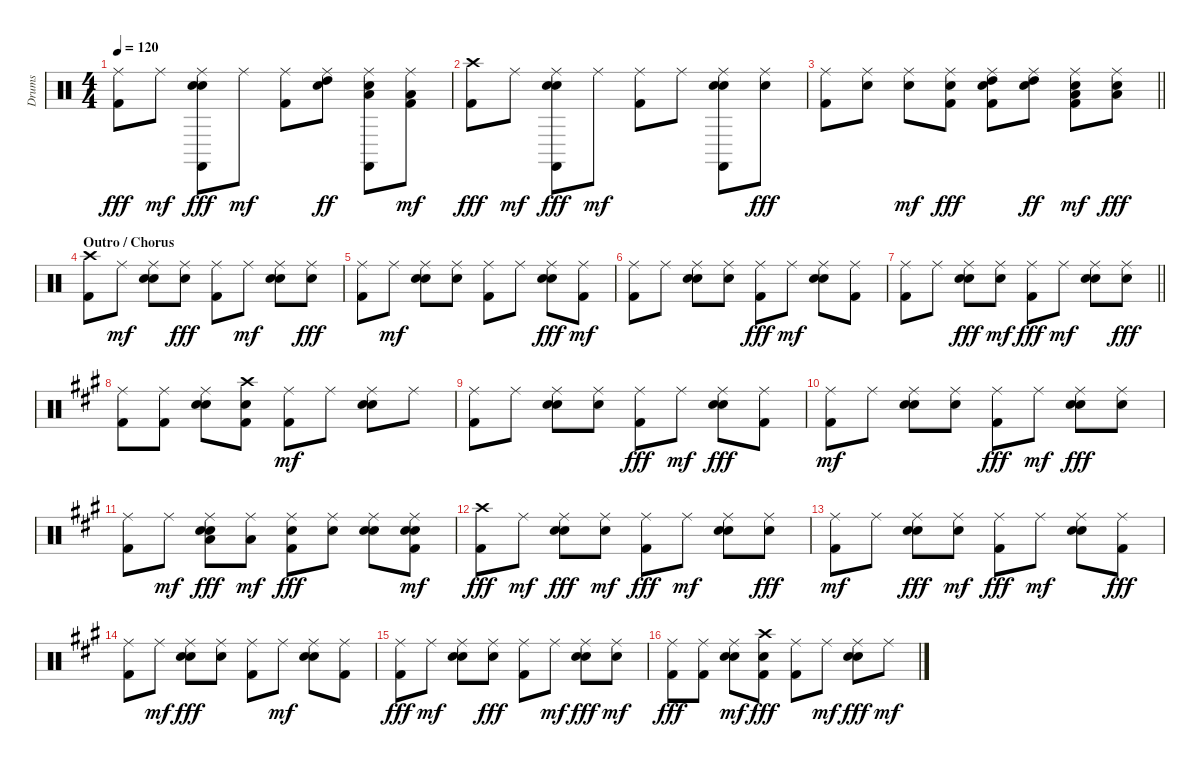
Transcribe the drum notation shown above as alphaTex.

\track ("Drums" "Drums") {instrument percussion}
\staff {score}
\articulation defaults
\ts (4 4)
\tempo 120
\clef neutral
\ks c
("Ride (middle)" "Kick (hit) 2").8{dy fff} "Ride (middle)".8{dy mf} ("Ride (middle)" "Hand Clap (hit)" "Castanets (hit)" "Snare (hit) 2").8{dy fff} "Ride (middle)".8{dy mf} ("Kick (hit) 2" "Ride (middle)").8 ("Snare (hit) 2" "Ride (middle)" "High Tom (hit)").8{dy ff} ("Hand Clap (hit)" "Ride (middle)" "Castanets (hit)" "Low Tom (hit)").8 ("Low Floor Tom (hit)" "Kick (hit) 2" "Ride (middle)").8{dy mf} |
("Crash high (hit)" "Kick (hit) 2").8{dy fff} "Ride (middle)".8{dy mf} ("Hand Clap (hit)" "Ride (middle)" "Castanets (hit)" "Snare (hit) 2").8{dy fff} "Ride (middle)".8{dy mf} ("Kick (hit) 2" "Ride (middle)").8 "Ride (middle)".8 ("Snare (hit) 2" "Castanets (hit)" "Hand Clap (hit)" "Ride (middle)").8 ("Ride (middle)" "Snare (hit) 2").8{dy fff} |
\barLineRight lightlight
("Ride (middle)" "Kick (hit) 2").8 ("Ride (middle)" "Snare (hit) 2").8 ("Snare (hit) 2" "Ride (middle)").8{dy mf} ("Snare (hit) 2" "Ride (middle)" "Kick (hit) 2").8{dy fff} ("High Tom (hit)" "Snare (hit) 2" "Ride (middle)" "Kick (hit) 2").8 ("Ride (middle)" "Snare (hit) 2" "High Tom (hit)").8{dy ff} ("Kick (hit) 2" "Low Tom (hit)" "Snare (hit) 2" "Ride (middle)").8{dy mf} ("Low Floor Tom (hit)" "Ride (middle)" "Snare (hit) 2").8{dy fff} |
\section ("" "Outro / Chorus")
("Crash high (hit)" "Kick (hit) 2").8 "Ride (middle)".8{dy mf} ("Hand Clap (hit)" "Snare (hit) 2" "Ride (middle)").8 ("Ride (middle)" "Hand Clap (hit)").8{dy fff} ("Ride (middle)" "Kick (hit) 2").8 "Ride (middle)".8{dy mf} ("Hand Clap (hit)" "Snare (hit) 2" "Ride (middle)").8 ("Ride (middle)" "Snare (hit) 2").8{dy fff} |
("Ride (middle)" "Kick (hit) 2").8 "Ride (middle)".8{dy mf} ("Hand Clap (hit)" "Snare (hit) 2" "Ride (middle)").8 ("Hand Clap (hit)" "Ride (middle)").8 ("Kick (hit) 2" "Ride (middle)").8 "Ride (middle)".8 ("Snare (hit) 2" "Ride (middle)" "Hand Clap (hit)").8{dy fff} ("Kick (hit) 2" "Ride (middle)").8{dy mf} |
("Kick (hit) 2" "Ride (middle)").8 "Ride (middle)".8 ("Snare (hit) 2" "Hand Clap (hit)" "Ride (middle)").8 ("Hand Clap (hit)" "Ride (middle)").8 ("Ride (middle)" "Kick (hit) 2").8{dy fff} "Ride (middle)".8{dy mf} ("Hand Clap (hit)" "Snare (hit) 2" "Ride (middle)").8 ("Kick (hit) 2" "Ride (middle)").8 |
\barLineRight lightlight
("Kick (hit) 2" "Ride (middle)").8 "Ride (middle)".8 ("Ride (middle)" "Snare (hit) 2" "Hand Clap (hit)").8{dy fff} ("Hand Clap (hit)" "Ride (middle)").8{dy mf} ("Ride (middle)" "Kick (hit) 2").8{dy fff} "Ride (middle)".8{dy mf} ("Hand Clap (hit)" "Snare (hit) 2" "Ride (middle)").8 ("Ride (middle)" "Snare (hit) 2").8{dy fff} |
\ks a
("Ride (middle)" "Kick (hit) 2").8 ("Ride (middle)" "Kick (hit) 2").8 ("Hand Clap (hit)" "Ride (middle)" "Snare (hit) 2").8 ("Kick (hit) 2" "Hand Clap (hit)" "Crash high (hit)").8 ("Kick (hit) 2" "Ride (middle)").8{dy mf} "Ride (middle)".8 ("Hand Clap (hit)" "Snare (hit) 2" "Ride (middle)").8 "Ride (middle)".8 |
("Kick (hit) 2" "Ride (middle)").8 "Ride (middle)".8 ("Hand Clap (hit)" "Snare (hit) 2" "Ride (middle)").8 ("Hand Clap (hit)" "Ride (middle)").8 ("Ride (middle)" "Kick (hit) 2").8{dy fff} "Ride (middle)".8{dy mf} ("Snare (hit) 2" "Ride (middle)" "Hand Clap (hit)").8{dy fff} ("Ride (middle)" "Kick (hit) 2").8 |
("Kick (hit) 2" "Ride (middle)").8{dy mf} "Ride (middle)".8 ("Snare (hit) 2" "Hand Clap (hit)" "Ride (middle)").8 ("Hand Clap (hit)" "Ride (middle)").8 ("Ride (middle)" "Kick (hit) 2").8{dy fff} "Ride (middle)".8{dy mf} ("Ride (middle)" "Hand Clap (hit)" "Snare (hit) 2").8{dy fff} ("Ride (middle)" "Snare (hit) 2").8 |
("Ride (middle)" "Kick (hit) 2").8 "Ride (middle)".8{dy mf} ("Hand Clap (hit)" "Low Tom (hit)" "Ride (middle)" "Snare (hit) 2").8{dy fff} ("Low Floor Tom (hit)" "Ride (middle)").8{dy mf} ("Snare (hit) 2" "Ride (middle)" "Kick (hit) 2").8{dy fff} ("Ride (middle)" "Snare (hit) 2").8 ("Snare (hit) 2" "Ride (middle)" "Hand Clap (hit)").8 ("Hand Clap (hit)" "Kick (hit) 2" "Snare (hit) 2" "Ride (middle)").8{dy mf} |
("Kick (hit) 2" "Crash high (hit)").8{dy fff} "Ride (middle)".8{dy mf} ("Snare (hit) 2" "Ride (middle)" "Hand Clap (hit)").8{dy fff} ("Hand Clap (hit)" "Ride (middle)").8{dy mf} ("Ride (middle)" "Kick (hit) 2").8{dy fff} "Ride (middle)".8{dy mf} ("Hand Clap (hit)" "Snare (hit) 2" "Ride (middle)").8 ("Ride (middle)" "Snare (hit) 2").8{dy fff} |
("Kick (hit) 2" "Ride (middle)").8{dy mf} "Ride (middle)".8 ("Hand Clap (hit)" "Ride (middle)" "Snare (hit) 2").8{dy fff} ("Hand Clap (hit)" "Ride (middle)").8{dy mf} ("Ride (middle)" "Kick (hit) 2").8{dy fff} "Ride (middle)".8{dy mf} ("Hand Clap (hit)" "Snare (hit) 2" "Ride (middle)").8 ("Ride (middle)" "Kick (hit) 2").8{dy fff} |
("Ride (middle)" "Kick (hit) 2").8 "Ride (middle)".8{dy mf} ("Ride (middle)" "Snare (hit) 2" "Hand Clap (hit)").8{dy fff} ("Ride (middle)" "Hand Clap (hit)").8 ("Ride (middle)" "Kick (hit) 2").8 "Ride (middle)".8{dy mf} ("Hand Clap (hit)" "Snare (hit) 2" "Ride (middle)").8 ("Kick (hit) 2" "Ride (middle)").8 |
("Ride (middle)" "Kick (hit) 2").8{dy fff} "Ride (middle)".8{dy mf} ("Hand Clap (hit)" "Snare (hit) 2" "Ride (middle)").8 ("Ride (middle)" "Hand Clap (hit)").8{dy fff} ("Ride (middle)" "Kick (hit) 2").8 "Ride (middle)".8{dy mf} ("Ride (middle)" "Hand Clap (hit)" "Snare (hit) 2").8{dy fff} ("Snare (hit) 2" "Ride (middle)").8{dy mf} |
("Ride (middle)" "Kick (hit) 2").8{dy fff} ("Ride (middle)" "Kick (hit) 2").8 ("Snare (hit) 2" "Hand Clap (hit)" "Ride (middle)").8{dy mf} ("Crash high (hit)" "Hand Clap (hit)" "Kick (hit) 2").8{dy fff} ("Ride (middle)" "Kick (hit) 2").8 "Ride (middle)".8{dy mf} ("Snare (hit) 2" "Ride (middle)" "Hand Clap (hit)").8{dy fff} "Ride (middle)".8{dy mf}
